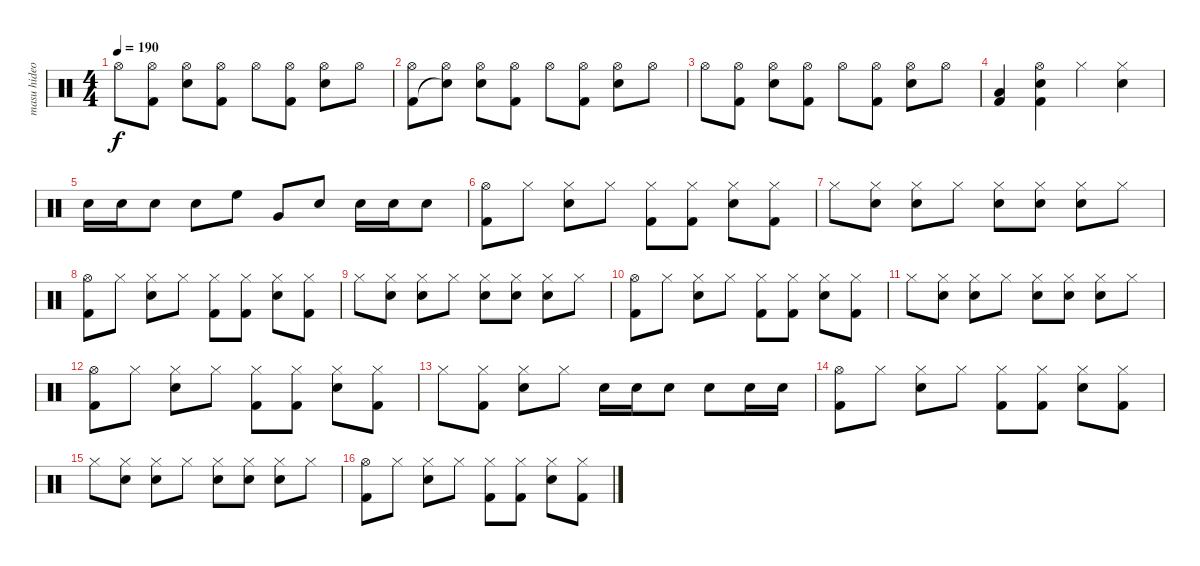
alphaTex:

\track ("masu hideo" "masu hideo") {instrument percussion}
\staff {score}
\articulation defaults
\ts (4 4)
\tempo 190
\clef neutral
\ks c "Hi-Hat (open)".8{dy f}
("Hi-Hat (open)" "Kick (hit) 2").8 ("Hi-Hat (open)" "Snare (hit) 2").8 ("Hi-Hat (open)" "Kick (hit) 2").8 "Hi-Hat (open)".8 ("Hi-Hat (open)" "Kick (hit) 2").8 ("Hi-Hat (open)" "Snare (hit) 2").8 "Hi-Hat (open)".8 |
("Hi-Hat (open)" "Kick (hit) 2").8 ("Hi-Hat (open)" "Snare (hit)"{t}).8 ("Hi-Hat (open)" "Snare (hit) 2").8 ("Hi-Hat (open)" "Kick (hit) 2").8 "Hi-Hat (open)".8 ("Hi-Hat (open)" "Kick (hit) 2").8 ("Hi-Hat (open)" "Snare (hit) 2").8 "Hi-Hat (open)".8 |
"Hi-Hat (open)".8 ("Hi-Hat (open)" "Kick (hit) 2").8 ("Hi-Hat (open)" "Snare (hit) 2").8 ("Hi-Hat (open)" "Kick (hit) 2").8 "Hi-Hat (open)".8 ("Hi-Hat (open)" "Kick (hit) 2").8 ("Hi-Hat (open)" "Snare (hit) 2").8 "Hi-Hat (open)".8 |
("Low Floor Tom (hit)" "Kick (hit) 2").4 ("Hi-Hat (open)" "Snare (hit) 2" "Kick (hit) 2").4 "Hi-Hat (closed)".4 ("Hi-Hat (closed)" "Snare (hit) 2").4 |
"Snare (hit) 2".16 "Snare (hit) 2".16 "Snare (hit) 2".8 "Snare (hit) 2".8 "High Floor Tom (hit)".8 "Very Low Tom (hit)".8 "Snare (hit) 2".8 "Snare (hit) 2".16 "Snare (hit) 2".16 "Snare (hit) 2".8 |
("Hi-Hat (open)" "Kick (hit) 2").8 "Hi-Hat (closed)".8 ("Hi-Hat (closed)" "Snare (hit) 2").8 "Hi-Hat (closed)".8 ("Hi-Hat (closed)" "Kick (hit) 2").8 ("Hi-Hat (closed)" "Kick (hit) 2").8 ("Hi-Hat (closed)" "Snare (hit) 2").8 ("Hi-Hat (closed)" "Kick (hit) 2").8 |
"Hi-Hat (closed)".8 ("Hi-Hat (closed)" "Snare (hit) 2").8 ("Hi-Hat (closed)" "Snare (hit) 2").8 "Hi-Hat (closed)".8 ("Hi-Hat (closed)" "Snare (hit) 2").8 ("Hi-Hat (closed)" "Snare (hit) 2").8 ("Hi-Hat (closed)" "Snare (hit) 2").8 "Hi-Hat (closed)".8 |
("Hi-Hat (open)" "Kick (hit) 2").8 "Hi-Hat (closed)".8 ("Hi-Hat (closed)" "Snare (hit) 2").8 "Hi-Hat (closed)".8 ("Hi-Hat (closed)" "Kick (hit) 2").8 ("Hi-Hat (closed)" "Kick (hit) 2").8 ("Hi-Hat (closed)" "Snare (hit) 2").8 ("Hi-Hat (closed)" "Kick (hit) 2").8 |
"Hi-Hat (closed)".8 ("Hi-Hat (closed)" "Snare (hit) 2").8 ("Hi-Hat (closed)" "Snare (hit) 2").8 "Hi-Hat (closed)".8 ("Hi-Hat (closed)" "Snare (hit) 2").8 ("Hi-Hat (closed)" "Snare (hit) 2").8 ("Hi-Hat (closed)" "Snare (hit) 2").8 "Hi-Hat (closed)".8 |
("Hi-Hat (open)" "Kick (hit) 2").8 "Hi-Hat (closed)".8 ("Hi-Hat (closed)" "Snare (hit) 2").8 "Hi-Hat (closed)".8 ("Hi-Hat (closed)" "Kick (hit) 2").8 ("Hi-Hat (closed)" "Kick (hit) 2").8 ("Hi-Hat (closed)" "Snare (hit) 2").8 ("Hi-Hat (closed)" "Kick (hit) 2").8 |
"Hi-Hat (closed)".8 ("Hi-Hat (closed)" "Snare (hit) 2").8 ("Hi-Hat (closed)" "Snare (hit) 2").8 "Hi-Hat (closed)".8 ("Hi-Hat (closed)" "Snare (hit) 2").8 ("Hi-Hat (closed)" "Snare (hit) 2").8 ("Hi-Hat (closed)" "Snare (hit) 2").8 "Hi-Hat (closed)".8 |
("Hi-Hat (open)" "Kick (hit) 2").8 "Hi-Hat (closed)".8 ("Hi-Hat (closed)" "Snare (hit) 2").8 "Hi-Hat (closed)".8 ("Hi-Hat (closed)" "Kick (hit) 2").8 ("Hi-Hat (closed)" "Kick (hit) 2").8 ("Hi-Hat (closed)" "Snare (hit) 2").8 ("Hi-Hat (closed)" "Kick (hit) 2").8 |
"Hi-Hat (closed)".8 ("Hi-Hat (closed)" "Kick (hit) 2").8 ("Hi-Hat (closed)" "Snare (hit) 2").8 "Hi-Hat (closed)".8 "Snare (hit) 2".16 "Snare (hit) 2".16 "Snare (hit) 2".8 "Snare (hit) 2".8 "Snare (hit) 2".16 "Snare (hit) 2".16 |
("Hi-Hat (open)" "Kick (hit) 2").8 "Hi-Hat (closed)".8 ("Hi-Hat (closed)" "Snare (hit) 2").8 "Hi-Hat (closed)".8 ("Hi-Hat (closed)" "Kick (hit) 2").8 ("Hi-Hat (closed)" "Kick (hit) 2").8 ("Hi-Hat (closed)" "Snare (hit) 2").8 ("Hi-Hat (closed)" "Kick (hit) 2").8 |
"Hi-Hat (closed)".8 ("Hi-Hat (closed)" "Snare (hit) 2").8 ("Hi-Hat (closed)" "Snare (hit) 2").8 "Hi-Hat (closed)".8 ("Hi-Hat (closed)" "Snare (hit) 2").8 ("Hi-Hat (closed)" "Snare (hit) 2").8 ("Hi-Hat (closed)" "Snare (hit) 2").8 "Hi-Hat (closed)".8 |
("Hi-Hat (open)" "Kick (hit) 2").8 "Hi-Hat (closed)".8 ("Hi-Hat (closed)" "Snare (hit) 2").8 "Hi-Hat (closed)".8 ("Hi-Hat (closed)" "Kick (hit) 2").8 ("Hi-Hat (closed)" "Kick (hit) 2").8 ("Hi-Hat (closed)" "Snare (hit) 2").8 ("Hi-Hat (closed)" "Kick (hit) 2").8
